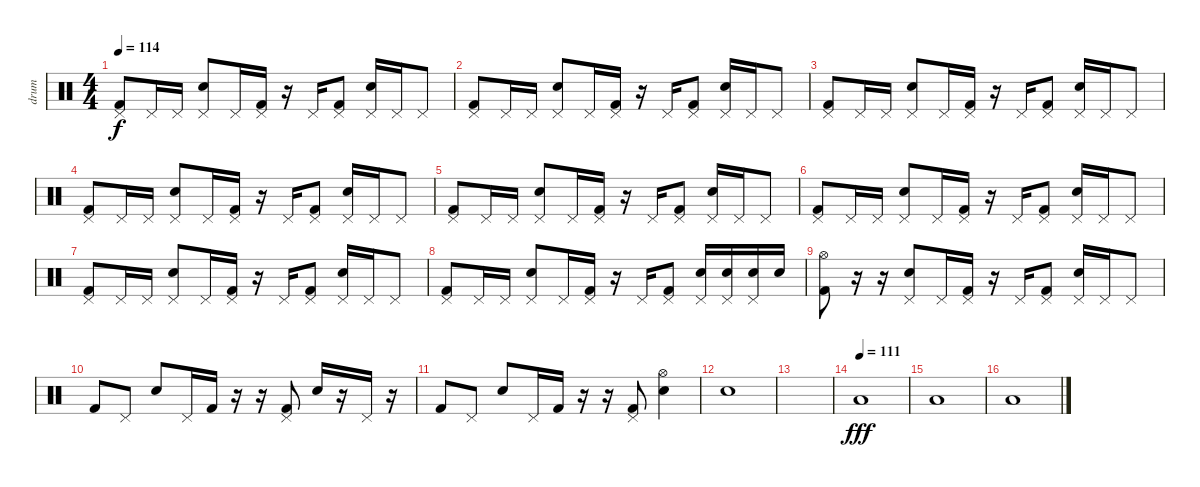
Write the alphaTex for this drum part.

\track ("drum" "drum") {instrument percussion}
\staff {score}
\articulation defaults
\ts (4 4)
\tempo 114
\clef neutral
\ks c
("Pedal Hi-Hat (hit)" "Kick (hit) 2").8{dy f} "Pedal Hi-Hat (hit)".16 "Pedal Hi-Hat (hit)".16 ("Pedal Hi-Hat (hit)" "Electric Snare (hit)").8 "Pedal Hi-Hat (hit)".16 ("Pedal Hi-Hat (hit)" "Kick (hit) 2").16 r.16 "Pedal Hi-Hat (hit)".16 ("Pedal Hi-Hat (hit)" "Kick (hit) 2").8 ("Pedal Hi-Hat (hit)" "Electric Snare (hit)").16 "Pedal Hi-Hat (hit)".16 "Pedal Hi-Hat (hit)".8 |
("Pedal Hi-Hat (hit)" "Kick (hit) 2").8 "Pedal Hi-Hat (hit)".16 "Pedal Hi-Hat (hit)".16 ("Pedal Hi-Hat (hit)" "Electric Snare (hit)").8 "Pedal Hi-Hat (hit)".16 ("Pedal Hi-Hat (hit)" "Kick (hit) 2").16 r.16 "Pedal Hi-Hat (hit)".16 ("Pedal Hi-Hat (hit)" "Kick (hit) 2").8 ("Pedal Hi-Hat (hit)" "Electric Snare (hit)").16 "Pedal Hi-Hat (hit)".16 "Pedal Hi-Hat (hit)".8 |
("Pedal Hi-Hat (hit)" "Kick (hit) 2").8 "Pedal Hi-Hat (hit)".16 "Pedal Hi-Hat (hit)".16 ("Pedal Hi-Hat (hit)" "Electric Snare (hit)").8 "Pedal Hi-Hat (hit)".16 ("Pedal Hi-Hat (hit)" "Kick (hit) 2").16 r.16 "Pedal Hi-Hat (hit)".16 ("Pedal Hi-Hat (hit)" "Kick (hit) 2").8 ("Pedal Hi-Hat (hit)" "Electric Snare (hit)").16 "Pedal Hi-Hat (hit)".16 "Pedal Hi-Hat (hit)".8 |
("Pedal Hi-Hat (hit)" "Kick (hit) 2").8 "Pedal Hi-Hat (hit)".16 "Pedal Hi-Hat (hit)".16 ("Pedal Hi-Hat (hit)" "Electric Snare (hit)").8 "Pedal Hi-Hat (hit)".16 ("Pedal Hi-Hat (hit)" "Kick (hit) 2").16 r.16 "Pedal Hi-Hat (hit)".16 ("Pedal Hi-Hat (hit)" "Kick (hit) 2").8 ("Pedal Hi-Hat (hit)" "Electric Snare (hit)").16 "Pedal Hi-Hat (hit)".16 "Pedal Hi-Hat (hit)".8 |
("Pedal Hi-Hat (hit)" "Kick (hit) 2").8 "Pedal Hi-Hat (hit)".16 "Pedal Hi-Hat (hit)".16 ("Pedal Hi-Hat (hit)" "Electric Snare (hit)").8 "Pedal Hi-Hat (hit)".16 ("Pedal Hi-Hat (hit)" "Kick (hit) 2").16 r.16 "Pedal Hi-Hat (hit)".16 ("Pedal Hi-Hat (hit)" "Kick (hit) 2").8 ("Pedal Hi-Hat (hit)" "Electric Snare (hit)").16 "Pedal Hi-Hat (hit)".16 "Pedal Hi-Hat (hit)".8 |
("Pedal Hi-Hat (hit)" "Kick (hit) 2").8 "Pedal Hi-Hat (hit)".16 "Pedal Hi-Hat (hit)".16 ("Pedal Hi-Hat (hit)" "Electric Snare (hit)").8 "Pedal Hi-Hat (hit)".16 ("Pedal Hi-Hat (hit)" "Kick (hit) 2").16 r.16 "Pedal Hi-Hat (hit)".16 ("Pedal Hi-Hat (hit)" "Kick (hit) 2").8 ("Pedal Hi-Hat (hit)" "Electric Snare (hit)").16 "Pedal Hi-Hat (hit)".16 "Pedal Hi-Hat (hit)".8 |
("Pedal Hi-Hat (hit)" "Kick (hit) 2").8 "Pedal Hi-Hat (hit)".16 "Pedal Hi-Hat (hit)".16 ("Pedal Hi-Hat (hit)" "Electric Snare (hit)").8 "Pedal Hi-Hat (hit)".16 ("Pedal Hi-Hat (hit)" "Kick (hit) 2").16 r.16 "Pedal Hi-Hat (hit)".16 ("Pedal Hi-Hat (hit)" "Kick (hit) 2").8 ("Pedal Hi-Hat (hit)" "Electric Snare (hit)").16 "Pedal Hi-Hat (hit)".16 "Pedal Hi-Hat (hit)".8 |
("Pedal Hi-Hat (hit)" "Kick (hit) 2").8 "Pedal Hi-Hat (hit)".16 "Pedal Hi-Hat (hit)".16 ("Pedal Hi-Hat (hit)" "Electric Snare (hit)").8 "Pedal Hi-Hat (hit)".16 ("Pedal Hi-Hat (hit)" "Kick (hit) 2").16 r.16 "Pedal Hi-Hat (hit)".16 ("Pedal Hi-Hat (hit)" "Kick (hit) 2").8 ("Pedal Hi-Hat (hit)" "Electric Snare (hit)").16 ("Pedal Hi-Hat (hit)" "Electric Snare (hit)").16 ("Pedal Hi-Hat (hit)" "Electric Snare (hit)").16 "Electric Snare (hit)".16 |
("Hi-Hat (open)" "Kick (hit) 2").8 r.16 r.16 ("Pedal Hi-Hat (hit)" "Electric Snare (hit)").8 "Pedal Hi-Hat (hit)".16 ("Pedal Hi-Hat (hit)" "Kick (hit) 2").16 r.16 "Pedal Hi-Hat (hit)".16 ("Pedal Hi-Hat (hit)" "Kick (hit) 2").8 ("Pedal Hi-Hat (hit)" "Electric Snare (hit)").16 "Pedal Hi-Hat (hit)".16 "Pedal Hi-Hat (hit)".8 |
"Kick (hit) 2".8 "Pedal Hi-Hat (hit)".8 "Electric Snare (hit)".8 "Pedal Hi-Hat (hit)".16 "Kick (hit) 2".16 r.16 r.16 ("Pedal Hi-Hat (hit)" "Kick (hit) 2").8 "Electric Snare (hit)".16 r.16 "Pedal Hi-Hat (hit)".16 r.16 |
"Kick (hit) 2".8 "Pedal Hi-Hat (hit)".8 "Electric Snare (hit)".8 "Pedal Hi-Hat (hit)".16 "Kick (hit) 2".16 r.16 r.16 ("Pedal Hi-Hat (hit)" "Kick (hit) 2").8 ("Hi-Hat (open)" "Electric Snare (hit)").4 |
"Electric Snare (hit)".1 |
|
\tempo (111)
"Low Tom (hit)".1{dy fff} |
"Low Tom (hit)".1 |
"Low Tom (hit)".1
